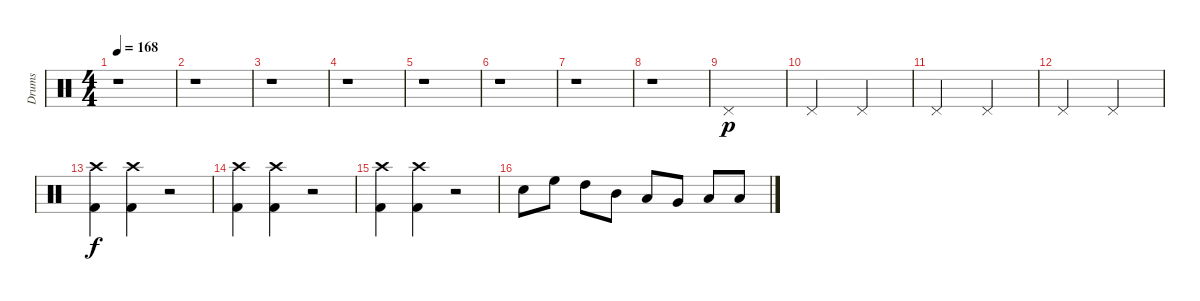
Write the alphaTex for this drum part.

\track ("Drums" "Drums") {instrument percussion}
\staff {score}
\articulation defaults
\ts (4 4)
\tempo 168
\clef neutral
\ks c
r.1{dy f} |
r.1 |
r.1 |
r.1 |
r.1 |
r.1 |
r.1 |
r.1 |
"Pedal Hi-Hat (hit)".1{dy p} |
"Pedal Hi-Hat (hit)".2 "Pedal Hi-Hat (hit)".2 |
"Pedal Hi-Hat (hit)".2 "Pedal Hi-Hat (hit)".2 |
"Pedal Hi-Hat (hit)".2 "Pedal Hi-Hat (hit)".2 |
\section ("" "")
("Kick (hit) 2" "Crash high (hit)").4{dy f} ("Kick (hit) 2" "Crash high (hit)").4 r.2 |
("Kick (hit) 2" "Crash high (hit)").4 ("Kick (hit) 2" "Crash high (hit)").4 r.2 |
("Kick (hit) 2" "Crash high (hit)").4 ("Kick (hit) 2" "Crash high (hit)").4 r.2 |
"Electric Snare (hit)".8 "High Floor Tom (hit)".8 "High Tom (hit)".8 "Mid Tom (hit)".8 "Low Tom (hit)".8 "Very Low Tom (hit)".8 "Low Floor Tom (hit)".8 "Low Floor Tom (hit)".8
